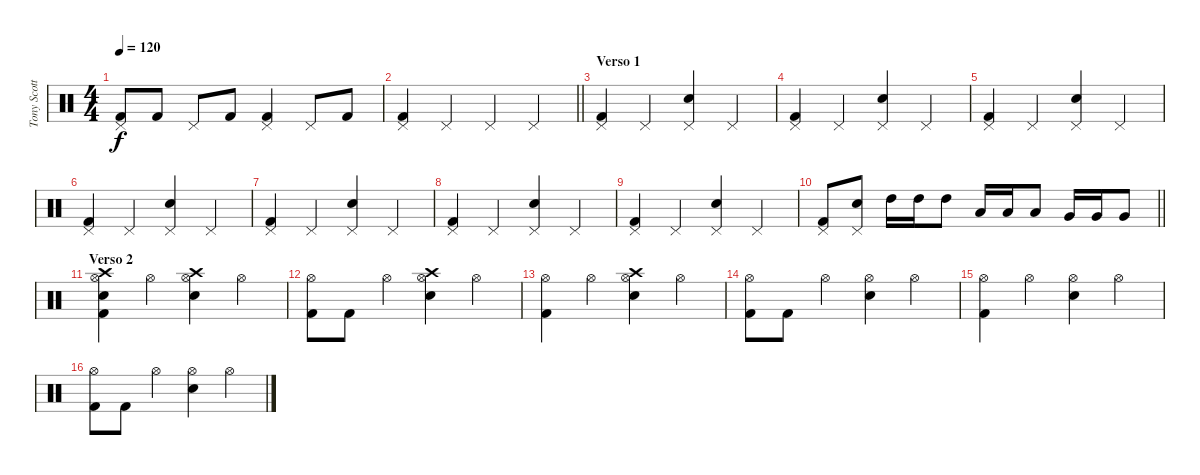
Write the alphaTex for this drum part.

\track ("Tony Scotto" "Tony Scott") {instrument percussion}
\staff {score}
\articulation defaults
\ts (4 4)
\tempo 120
\clef neutral
\ks c
("Pedal Hi-Hat (hit)" "Kick (hit) 2").8{dy f} "Kick (hit) 2".8 "Pedal Hi-Hat (hit)".8 "Kick (hit) 2".8 ("Pedal Hi-Hat (hit)" "Kick (hit) 2").4 "Pedal Hi-Hat (hit)".8 "Kick (hit) 2".8 |
\barLineRight lightlight
("Pedal Hi-Hat (hit)" "Kick (hit) 2").4 "Pedal Hi-Hat (hit)".4 "Pedal Hi-Hat (hit)".4 "Pedal Hi-Hat (hit)".4 |
\section ("" "Verso 1")
("Pedal Hi-Hat (hit)" "Kick (hit) 2").4 "Pedal Hi-Hat (hit)".4 ("Pedal Hi-Hat (hit)" "Snare (hit) 2").4 "Pedal Hi-Hat (hit)".4 |
("Pedal Hi-Hat (hit)" "Kick (hit) 2").4 "Pedal Hi-Hat (hit)".4 ("Pedal Hi-Hat (hit)" "Snare (hit) 2").4 "Pedal Hi-Hat (hit)".4 |
("Pedal Hi-Hat (hit)" "Kick (hit) 2").4 "Pedal Hi-Hat (hit)".4 ("Pedal Hi-Hat (hit)" "Snare (hit) 2").4 "Pedal Hi-Hat (hit)".4 |
("Pedal Hi-Hat (hit)" "Kick (hit) 2").4 "Pedal Hi-Hat (hit)".4 ("Pedal Hi-Hat (hit)" "Snare (hit) 2").4 "Pedal Hi-Hat (hit)".4 |
("Pedal Hi-Hat (hit)" "Kick (hit) 2").4 "Pedal Hi-Hat (hit)".4 ("Pedal Hi-Hat (hit)" "Snare (hit) 2").4 "Pedal Hi-Hat (hit)".4 |
("Pedal Hi-Hat (hit)" "Kick (hit) 2").4 "Pedal Hi-Hat (hit)".4 ("Pedal Hi-Hat (hit)" "Snare (hit) 2").4 "Pedal Hi-Hat (hit)".4 |
("Pedal Hi-Hat (hit)" "Kick (hit) 2").4 "Pedal Hi-Hat (hit)".4 ("Pedal Hi-Hat (hit)" "Snare (hit) 2").4 "Pedal Hi-Hat (hit)".4 |
\barLineRight lightlight
("Pedal Hi-Hat (hit)" "Kick (hit) 2").8 ("Pedal Hi-Hat (hit)" "Snare (hit) 2").8 "High Tom (hit)".16 "High Tom (hit)".16 "High Tom (hit)".8 "Low Tom (hit)".16 "Low Tom (hit)".16 "Low Tom (hit)".8 "Very Low Tom (hit)".16 "Very Low Tom (hit)".16 "Very Low Tom (hit)".8 |
\section ("" "Verso 2")
("Hi-Hat (open)" "Crash high (hit)" "Snare (hit) 2" "Kick (hit) 2").4 "Hi-Hat (open)".4 ("Hi-Hat (open)" "Crash high (hit)" "Snare (hit) 2").4 "Hi-Hat (open)".4 |
("Hi-Hat (open)" "Kick (hit) 2").8 "Kick (hit) 2".8 "Hi-Hat (open)".4 ("Hi-Hat (open)" "Crash high (hit)" "Snare (hit) 2").4 "Hi-Hat (open)".4 |
("Hi-Hat (open)" "Kick (hit) 2").4 "Hi-Hat (open)".4 ("Hi-Hat (open)" "Crash high (hit)" "Snare (hit) 2").4 "Hi-Hat (open)".4 |
("Hi-Hat (open)" "Kick (hit) 2").8 "Kick (hit) 2".8 "Hi-Hat (open)".4 ("Hi-Hat (open)" "Snare (hit) 2").4 "Hi-Hat (open)".4 |
("Hi-Hat (open)" "Kick (hit) 2").4 "Hi-Hat (open)".4 ("Hi-Hat (open)" "Snare (hit) 2").4 "Hi-Hat (open)".4 |
("Hi-Hat (open)" "Kick (hit) 2").8 "Kick (hit) 2".8 "Hi-Hat (open)".4 ("Hi-Hat (open)" "Snare (hit) 2").4 "Hi-Hat (open)".4
